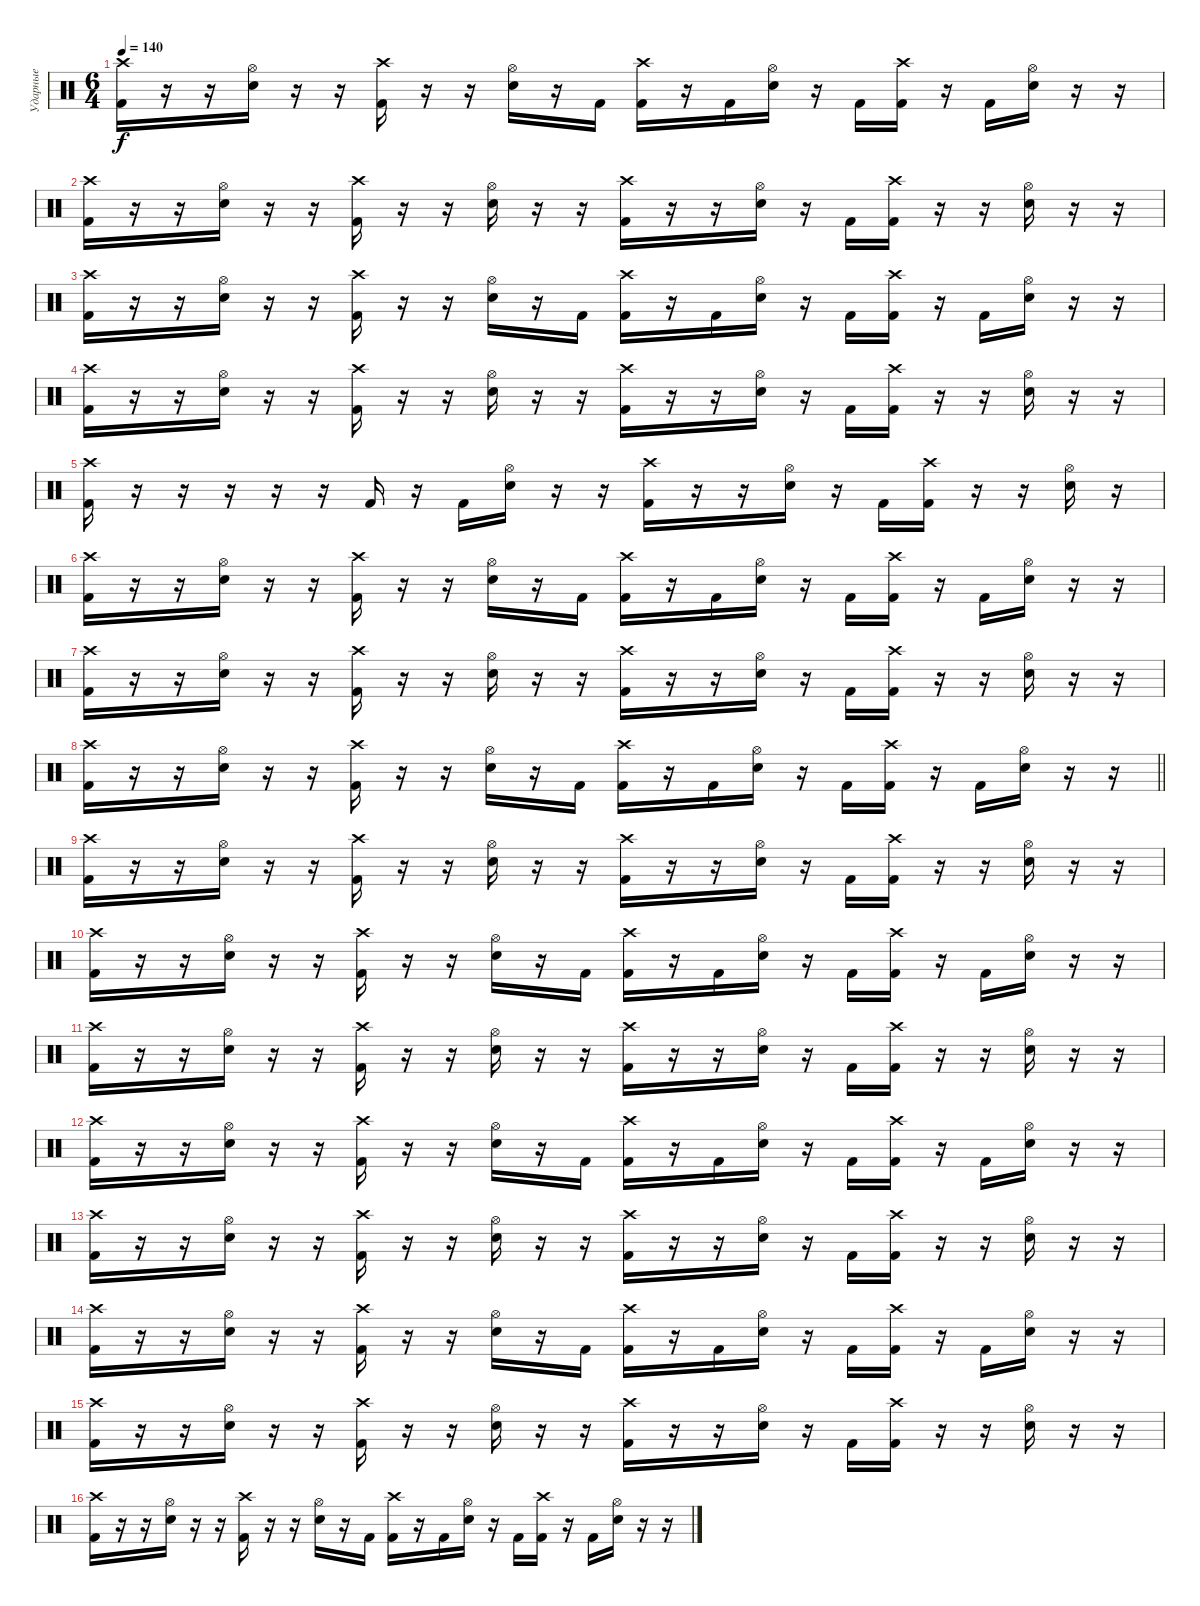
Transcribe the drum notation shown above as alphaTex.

\track ("Ударные" "Ударные") {instrument percussion}
\staff {score}
\articulation defaults
\ts (6 4)
\tempo 140
\clef neutral
\ks c
("Crash high (hit)" "Kick (hit) 2").16{dy f} r.16 r.16 ("Hi-Hat (open)" "Snare (hit) 2").16 r.16 r.16 ("Crash high (hit)" "Kick (hit) 2").16 r.16 r.16 ("Hi-Hat (open)" "Snare (hit) 2").16 r.16 "Kick (hit) 2".16 ("Crash high (hit)" "Kick (hit) 2").16 r.16 "Kick (hit) 2".16 ("Hi-Hat (open)" "Snare (hit) 2").16 r.16 "Kick (hit) 2".16 ("Crash high (hit)" "Kick (hit) 2").16 r.16 "Kick (hit) 2".16 ("Hi-Hat (open)" "Snare (hit) 2").16 r.16 r.16 |
("Crash high (hit)" "Kick (hit) 2").16 r.16 r.16 ("Hi-Hat (open)" "Snare (hit) 2").16 r.16 r.16 ("Crash high (hit)" "Kick (hit) 2").16 r.16 r.16 ("Hi-Hat (open)" "Snare (hit) 2").16 r.16 r.16 ("Crash high (hit)" "Kick (hit) 2").16 r.16 r.16 ("Hi-Hat (open)" "Snare (hit) 2").16 r.16 "Kick (hit) 2".16 ("Crash high (hit)" "Kick (hit) 2").16 r.16 r.16 ("Hi-Hat (open)" "Snare (hit) 2").16 r.16 r.16 |
("Crash high (hit)" "Kick (hit) 2").16 r.16 r.16 ("Hi-Hat (open)" "Snare (hit) 2").16 r.16 r.16 ("Crash high (hit)" "Kick (hit) 2").16 r.16 r.16 ("Hi-Hat (open)" "Snare (hit) 2").16 r.16 "Kick (hit) 2".16 ("Crash high (hit)" "Kick (hit) 2").16 r.16 "Kick (hit) 2".16 ("Hi-Hat (open)" "Snare (hit) 2").16 r.16 "Kick (hit) 2".16 ("Crash high (hit)" "Kick (hit) 2").16 r.16 "Kick (hit) 2".16 ("Hi-Hat (open)" "Snare (hit) 2").16 r.16 r.16 |
("Crash high (hit)" "Kick (hit) 2").16 r.16 r.16 ("Hi-Hat (open)" "Snare (hit) 2").16 r.16 r.16 ("Crash high (hit)" "Kick (hit) 2").16 r.16 r.16 ("Hi-Hat (open)" "Snare (hit) 2").16 r.16 r.16 ("Crash high (hit)" "Kick (hit) 2").16 r.16 r.16 ("Hi-Hat (open)" "Snare (hit) 2").16 r.16 "Kick (hit) 2".16 ("Crash high (hit)" "Kick (hit) 2").16 r.16 r.16 ("Hi-Hat (open)" "Snare (hit) 2").16 r.16 r.16 |
("Crash high (hit)" "Kick (hit) 2").16 r.16 r.16 r.16 r.16 r.16 "Kick (hit) 2".16 r.16 "Kick (hit) 2".16 ("Hi-Hat (open)" "Snare (hit) 2").16 r.16 r.16 ("Crash high (hit)" "Kick (hit) 2").16 r.16 r.16 ("Hi-Hat (open)" "Snare (hit) 2").16 r.16 "Kick (hit) 2".16 ("Crash high (hit)" "Kick (hit) 2").16 r.16 r.16 ("Hi-Hat (open)" "Snare (hit) 2").16 r.16 |
("Crash high (hit)" "Kick (hit) 2").16 r.16 r.16 ("Hi-Hat (open)" "Snare (hit) 2").16 r.16 r.16 ("Crash high (hit)" "Kick (hit) 2").16 r.16 r.16 ("Hi-Hat (open)" "Snare (hit) 2").16 r.16 "Kick (hit) 2".16 ("Crash high (hit)" "Kick (hit) 2").16 r.16 "Kick (hit) 2".16 ("Hi-Hat (open)" "Snare (hit) 2").16 r.16 "Kick (hit) 2".16 ("Crash high (hit)" "Kick (hit) 2").16 r.16 "Kick (hit) 2".16 ("Hi-Hat (open)" "Snare (hit) 2").16 r.16 r.16 |
("Crash high (hit)" "Kick (hit) 2").16 r.16 r.16 ("Hi-Hat (open)" "Snare (hit) 2").16 r.16 r.16 ("Crash high (hit)" "Kick (hit) 2").16 r.16 r.16 ("Hi-Hat (open)" "Snare (hit) 2").16 r.16 r.16 ("Crash high (hit)" "Kick (hit) 2").16 r.16 r.16 ("Hi-Hat (open)" "Snare (hit) 2").16 r.16 "Kick (hit) 2".16 ("Crash high (hit)" "Kick (hit) 2").16 r.16 r.16 ("Hi-Hat (open)" "Snare (hit) 2").16 r.16 r.16 |
\barLineRight lightlight
("Crash high (hit)" "Kick (hit) 2").16 r.16 r.16 ("Hi-Hat (open)" "Snare (hit) 2").16 r.16 r.16 ("Crash high (hit)" "Kick (hit) 2").16 r.16 r.16 ("Hi-Hat (open)" "Snare (hit) 2").16 r.16 "Kick (hit) 2".16 ("Crash high (hit)" "Kick (hit) 2").16 r.16 "Kick (hit) 2".16 ("Hi-Hat (open)" "Snare (hit) 2").16 r.16 "Kick (hit) 2".16 ("Crash high (hit)" "Kick (hit) 2").16 r.16 "Kick (hit) 2".16 ("Hi-Hat (open)" "Snare (hit) 2").16 r.16 r.16 |
("Crash high (hit)" "Kick (hit) 2").16 r.16 r.16 ("Hi-Hat (open)" "Snare (hit) 2").16 r.16 r.16 ("Crash high (hit)" "Kick (hit) 2").16 r.16 r.16 ("Hi-Hat (open)" "Snare (hit) 2").16 r.16 r.16 ("Crash high (hit)" "Kick (hit) 2").16 r.16 r.16 ("Hi-Hat (open)" "Snare (hit) 2").16 r.16 "Kick (hit) 2".16 ("Crash high (hit)" "Kick (hit) 2").16 r.16 r.16 ("Hi-Hat (open)" "Snare (hit) 2").16 r.16 r.16 |
("Crash high (hit)" "Kick (hit) 2").16 r.16 r.16 ("Hi-Hat (open)" "Snare (hit) 2").16 r.16 r.16 ("Crash high (hit)" "Kick (hit) 2").16 r.16 r.16 ("Hi-Hat (open)" "Snare (hit) 2").16 r.16 "Kick (hit) 2".16 ("Crash high (hit)" "Kick (hit) 2").16 r.16 "Kick (hit) 2".16 ("Hi-Hat (open)" "Snare (hit) 2").16 r.16 "Kick (hit) 2".16 ("Crash high (hit)" "Kick (hit) 2").16 r.16 "Kick (hit) 2".16 ("Hi-Hat (open)" "Snare (hit) 2").16 r.16 r.16 |
("Crash high (hit)" "Kick (hit) 2").16 r.16 r.16 ("Hi-Hat (open)" "Snare (hit) 2").16 r.16 r.16 ("Crash high (hit)" "Kick (hit) 2").16 r.16 r.16 ("Hi-Hat (open)" "Snare (hit) 2").16 r.16 r.16 ("Crash high (hit)" "Kick (hit) 2").16 r.16 r.16 ("Hi-Hat (open)" "Snare (hit) 2").16 r.16 "Kick (hit) 2".16 ("Crash high (hit)" "Kick (hit) 2").16 r.16 r.16 ("Hi-Hat (open)" "Snare (hit) 2").16 r.16 r.16 |
("Crash high (hit)" "Kick (hit) 2").16 r.16 r.16 ("Hi-Hat (open)" "Snare (hit) 2").16 r.16 r.16 ("Crash high (hit)" "Kick (hit) 2").16 r.16 r.16 ("Hi-Hat (open)" "Snare (hit) 2").16 r.16 "Kick (hit) 2".16 ("Crash high (hit)" "Kick (hit) 2").16 r.16 "Kick (hit) 2".16 ("Hi-Hat (open)" "Snare (hit) 2").16 r.16 "Kick (hit) 2".16 ("Crash high (hit)" "Kick (hit) 2").16 r.16 "Kick (hit) 2".16 ("Hi-Hat (open)" "Snare (hit) 2").16 r.16 r.16 |
("Crash high (hit)" "Kick (hit) 2").16 r.16 r.16 ("Hi-Hat (open)" "Snare (hit) 2").16 r.16 r.16 ("Crash high (hit)" "Kick (hit) 2").16 r.16 r.16 ("Hi-Hat (open)" "Snare (hit) 2").16 r.16 r.16 ("Crash high (hit)" "Kick (hit) 2").16 r.16 r.16 ("Hi-Hat (open)" "Snare (hit) 2").16 r.16 "Kick (hit) 2".16 ("Crash high (hit)" "Kick (hit) 2").16 r.16 r.16 ("Hi-Hat (open)" "Snare (hit) 2").16 r.16 r.16 |
("Crash high (hit)" "Kick (hit) 2").16 r.16 r.16 ("Hi-Hat (open)" "Snare (hit) 2").16 r.16 r.16 ("Crash high (hit)" "Kick (hit) 2").16 r.16 r.16 ("Hi-Hat (open)" "Snare (hit) 2").16 r.16 "Kick (hit) 2".16 ("Crash high (hit)" "Kick (hit) 2").16 r.16 "Kick (hit) 2".16 ("Hi-Hat (open)" "Snare (hit) 2").16 r.16 "Kick (hit) 2".16 ("Crash high (hit)" "Kick (hit) 2").16 r.16 "Kick (hit) 2".16 ("Hi-Hat (open)" "Snare (hit) 2").16 r.16 r.16 |
("Crash high (hit)" "Kick (hit) 2").16 r.16 r.16 ("Hi-Hat (open)" "Snare (hit) 2").16 r.16 r.16 ("Crash high (hit)" "Kick (hit) 2").16 r.16 r.16 ("Hi-Hat (open)" "Snare (hit) 2").16 r.16 r.16 ("Crash high (hit)" "Kick (hit) 2").16 r.16 r.16 ("Hi-Hat (open)" "Snare (hit) 2").16 r.16 "Kick (hit) 2".16 ("Crash high (hit)" "Kick (hit) 2").16 r.16 r.16 ("Hi-Hat (open)" "Snare (hit) 2").16 r.16 r.16 |
("Crash high (hit)" "Kick (hit) 2").16 r.16 r.16 ("Hi-Hat (open)" "Snare (hit) 2").16 r.16 r.16 ("Crash high (hit)" "Kick (hit) 2").16 r.16 r.16 ("Hi-Hat (open)" "Snare (hit) 2").16 r.16 "Kick (hit) 2".16 ("Crash high (hit)" "Kick (hit) 2").16 r.16 "Kick (hit) 2".16 ("Hi-Hat (open)" "Snare (hit) 2").16 r.16 "Kick (hit) 2".16 ("Crash high (hit)" "Kick (hit) 2").16 r.16 "Kick (hit) 2".16 ("Hi-Hat (open)" "Snare (hit) 2").16 r.16 r.16
